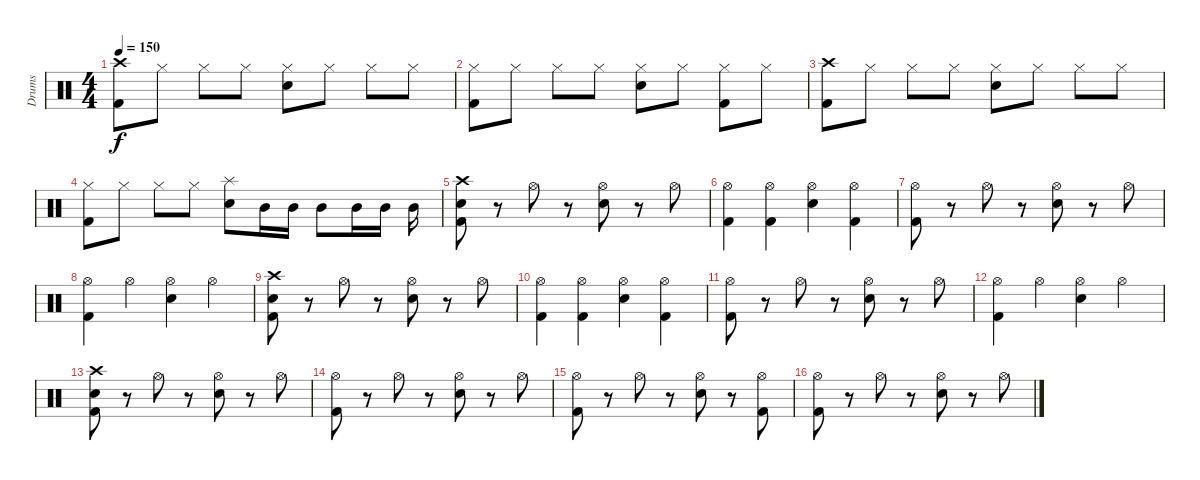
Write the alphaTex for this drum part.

\track ("Drums" "Drums") {instrument percussion}
\staff {score}
\articulation defaults
\ts (4 4)
\tempo 150
\clef neutral
\ks c
("Crash high (hit)" "Kick (hit) 2").8{dy f} "Hi-Hat (closed)".8 "Hi-Hat (closed)".8 "Hi-Hat (closed)".8 ("Hi-Hat (closed)" "Electric Snare (hit)").8 "Hi-Hat (closed)".8 "Hi-Hat (closed)".8 "Hi-Hat (closed)".8 |
("Hi-Hat (closed)" "Kick (hit) 2").8 "Hi-Hat (closed)".8 "Hi-Hat (closed)".8 "Hi-Hat (closed)".8 ("Hi-Hat (closed)" "Electric Snare (hit)").8 "Hi-Hat (closed)".8 ("Hi-Hat (closed)" "Kick (hit) 2").8 "Hi-Hat (closed)".8 |
("Crash high (hit)" "Kick (hit) 2").8 "Hi-Hat (closed)".8 "Hi-Hat (closed)".8 "Hi-Hat (closed)".8 ("Hi-Hat (closed)" "Electric Snare (hit)").8 "Hi-Hat (closed)".8 "Hi-Hat (closed)".8 "Hi-Hat (closed)".8 |
("Hi-Hat (closed)" "Kick (hit) 2").8 "Hi-Hat (closed)".8 "Hi-Hat (closed)".8 "Hi-Hat (closed)".8 ("Splash (hit)" "Electric Snare (hit)").8 "Mid Tom (hit)".16 "Mid Tom (hit)".16 "Mid Tom (hit)".8 "Mid Tom (hit)".16 "Mid Tom (hit)".16 "Mid Tom (hit)".16 |
("Crash high (hit)" "Electric Snare (hit)" "Kick (hit) 2").8 r.8 "Hi-Hat (open)".8 r.8 ("Hi-Hat (open)" "Electric Snare (hit)").8 r.8 "Hi-Hat (open)".8 |
("Hi-Hat (open)" "Kick (hit) 2").4 ("Hi-Hat (open)" "Kick (hit) 2").4 ("Hi-Hat (open)" "Electric Snare (hit)").4 ("Hi-Hat (open)" "Kick (hit) 2").4 |
("Hi-Hat (open)" "Kick (hit) 2").8 r.8 "Hi-Hat (open)".8 r.8 ("Hi-Hat (open)" "Electric Snare (hit)").8 r.8 "Hi-Hat (open)".8 |
("Hi-Hat (open)" "Kick (hit) 2").4 "Hi-Hat (open)".4 ("Hi-Hat (open)" "Electric Snare (hit)").4 "Hi-Hat (open)".4 |
("Crash high (hit)" "Electric Snare (hit)" "Kick (hit) 2").8 r.8 "Hi-Hat (open)".8 r.8 ("Hi-Hat (open)" "Electric Snare (hit)").8 r.8 "Hi-Hat (open)".8 |
("Hi-Hat (open)" "Kick (hit) 2").4 ("Hi-Hat (open)" "Kick (hit) 2").4 ("Hi-Hat (open)" "Electric Snare (hit)").4 ("Hi-Hat (open)" "Kick (hit) 2").4 |
("Hi-Hat (open)" "Kick (hit) 2").8 r.8 "Hi-Hat (open)".8 r.8 ("Hi-Hat (open)" "Electric Snare (hit)").8 r.8 "Hi-Hat (open)".8 |
("Hi-Hat (open)" "Kick (hit) 2").4 "Hi-Hat (open)".4 ("Hi-Hat (open)" "Electric Snare (hit)").4 "Hi-Hat (open)".4 |
("Crash high (hit)" "Electric Snare (hit)" "Kick (hit) 2").8 r.8 "Hi-Hat (open)".8 r.8 ("Hi-Hat (open)" "Electric Snare (hit)").8 r.8 "Hi-Hat (open)".8 |
("Hi-Hat (open)" "Kick (hit) 2").8 r.8 "Hi-Hat (open)".8 r.8 ("Hi-Hat (open)" "Electric Snare (hit)").8 r.8 "Hi-Hat (open)".8 |
("Hi-Hat (open)" "Kick (hit) 2").8 r.8 "Hi-Hat (open)".8 r.8 ("Hi-Hat (open)" "Electric Snare (hit)").8 r.8 ("Hi-Hat (open)" "Kick (hit) 2").8 |
("Hi-Hat (open)" "Kick (hit) 2").8 r.8 "Hi-Hat (open)".8 r.8 ("Hi-Hat (open)" "Electric Snare (hit)").8 r.8 "Hi-Hat (open)".8
